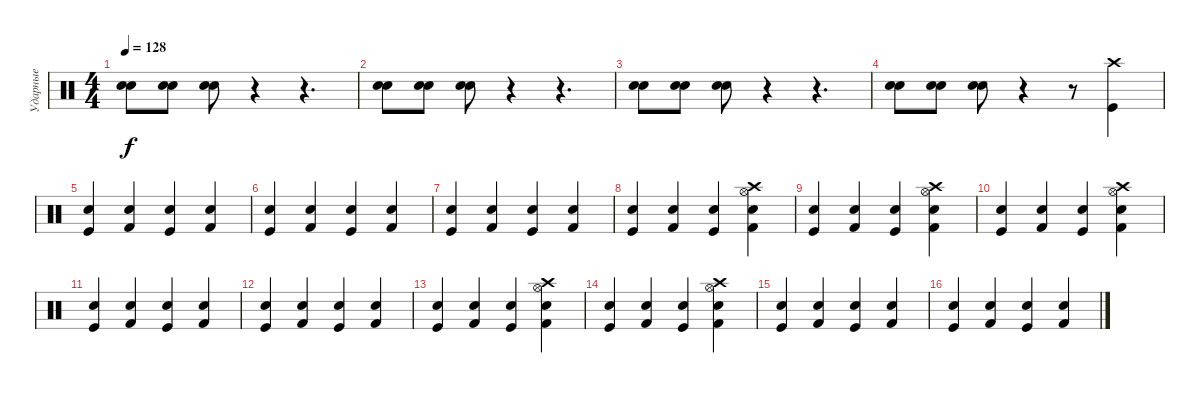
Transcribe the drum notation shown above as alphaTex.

\track ("Ударные" "Ударные") {instrument percussion}
\staff {score}
\articulation defaults
\ts (4 4)
\tempo 128
\clef neutral
\ks c
("Snare (hit) 2" "Electric Snare (hit)").8{dy f} ("Snare (hit) 2" "Electric Snare (hit)").8 ("Snare (hit) 2" "Electric Snare (hit)").8 r.4 r.4{d} |
("Snare (hit) 2" "Electric Snare (hit)").8 ("Snare (hit) 2" "Electric Snare (hit)").8 ("Snare (hit) 2" "Electric Snare (hit)").8 r.4 r.4{d} |
("Snare (hit) 2" "Electric Snare (hit)").8 ("Snare (hit) 2" "Electric Snare (hit)").8 ("Snare (hit) 2" "Electric Snare (hit)").8 r.4 r.4{d} |
("Snare (hit) 2" "Electric Snare (hit)").8 ("Snare (hit) 2" "Electric Snare (hit)").8 ("Snare (hit) 2" "Electric Snare (hit)").8 r.4 r.8 ("Kick (hit)" "Crash high (hit)").4 |
("Kick (hit)" "Electric Snare (hit)").4 ("Kick (hit) 2" "Snare (hit) 2").4 ("Kick (hit)" "Electric Snare (hit)").4 ("Kick (hit) 2" "Snare (hit) 2").4 |
("Kick (hit)" "Electric Snare (hit)").4 ("Kick (hit) 2" "Snare (hit) 2").4 ("Kick (hit)" "Electric Snare (hit)").4 ("Kick (hit) 2" "Snare (hit) 2").4 |
("Kick (hit)" "Electric Snare (hit)").4 ("Kick (hit) 2" "Snare (hit) 2").4 ("Kick (hit)" "Electric Snare (hit)").4 ("Kick (hit) 2" "Snare (hit) 2").4 |
("Kick (hit)" "Electric Snare (hit)").4 ("Kick (hit) 2" "Snare (hit) 2").4 ("Kick (hit)" "Electric Snare (hit)").4 ("Kick (hit) 2" "Snare (hit) 2" "Crash high (hit)" "Hi-Hat (open)").4 |
("Kick (hit)" "Electric Snare (hit)").4 ("Kick (hit) 2" "Snare (hit) 2").4 ("Kick (hit)" "Electric Snare (hit)").4 ("Kick (hit) 2" "Snare (hit) 2" "Crash high (hit)" "Hi-Hat (open)").4 |
("Kick (hit)" "Electric Snare (hit)").4 ("Kick (hit) 2" "Snare (hit) 2").4 ("Kick (hit)" "Electric Snare (hit)").4 ("Kick (hit) 2" "Snare (hit) 2" "Crash high (hit)" "Hi-Hat (open)").4 |
("Kick (hit)" "Electric Snare (hit)").4 ("Kick (hit) 2" "Snare (hit) 2").4 ("Kick (hit)" "Electric Snare (hit)").4 ("Kick (hit) 2" "Snare (hit) 2").4 |
("Kick (hit)" "Electric Snare (hit)").4 ("Kick (hit) 2" "Snare (hit) 2").4 ("Kick (hit)" "Electric Snare (hit)").4 ("Kick (hit) 2" "Snare (hit) 2").4 |
("Kick (hit)" "Electric Snare (hit)").4 ("Kick (hit) 2" "Snare (hit) 2").4 ("Kick (hit)" "Electric Snare (hit)").4 ("Kick (hit) 2" "Snare (hit) 2" "Crash high (hit)" "Hi-Hat (open)").4 |
("Kick (hit)" "Electric Snare (hit)").4 ("Kick (hit) 2" "Snare (hit) 2").4 ("Kick (hit)" "Electric Snare (hit)").4 ("Kick (hit) 2" "Snare (hit) 2" "Crash high (hit)" "Hi-Hat (open)").4 |
("Kick (hit)" "Electric Snare (hit)").4 ("Kick (hit) 2" "Snare (hit) 2").4 ("Kick (hit)" "Electric Snare (hit)").4 ("Kick (hit) 2" "Snare (hit) 2").4 |
("Kick (hit)" "Electric Snare (hit)").4 ("Kick (hit) 2" "Snare (hit) 2").4 ("Kick (hit)" "Electric Snare (hit)").4 ("Kick (hit) 2" "Snare (hit) 2").4
